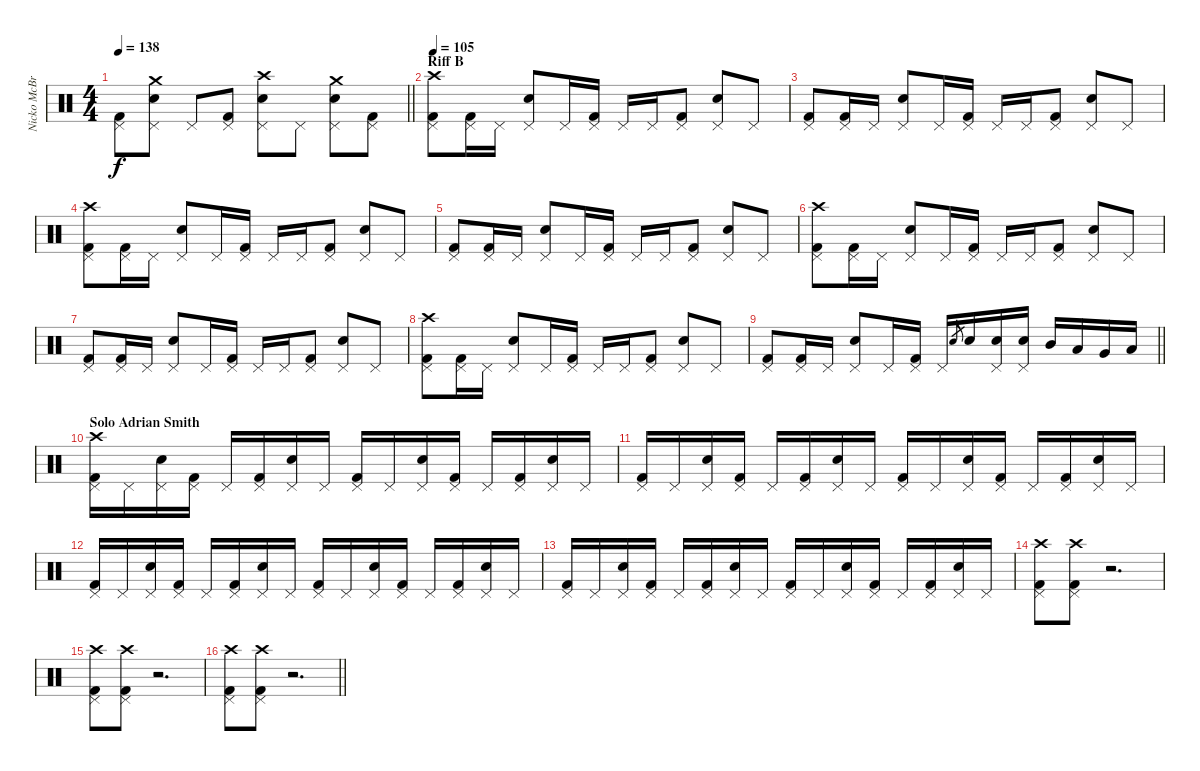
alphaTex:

\track ("Nicko McBrain" "Nicko McBr") {instrument percussion}
\staff {score}
\articulation defaults
\ts (4 4)
\tempo 138
\clef neutral
\barLineRight lightlight
\ks c
("Kick (hit) 2" "Pedal Hi-Hat (hit)").8{dy f} ("Snare (hit) 2" "Pedal Hi-Hat (hit)" "Crash medium (hit)").8 "Pedal Hi-Hat (hit)".8 ("Kick (hit) 2" "Pedal Hi-Hat (hit)").8 ("Snare (hit) 2" "Pedal Hi-Hat (hit)" "Crash high (hit)").8 "Pedal Hi-Hat (hit)".8 ("Snare (hit) 2" "Pedal Hi-Hat (hit)" "Crash medium (hit)").8 ("Kick (hit) 2" "Pedal Hi-Hat (hit)").8 |
\section ("" "Riff B")
\tempo 105
("Kick (hit) 2" "Pedal Hi-Hat (hit)" "Crash high (hit)").8 ("Kick (hit) 2" "Pedal Hi-Hat (hit)").16 "Pedal Hi-Hat (hit)".16 ("Snare (hit) 2" "Pedal Hi-Hat (hit)").8 "Pedal Hi-Hat (hit)".16 ("Kick (hit) 2" "Pedal Hi-Hat (hit)").16 "Pedal Hi-Hat (hit)".16 "Pedal Hi-Hat (hit)".16 ("Kick (hit) 2" "Pedal Hi-Hat (hit)").8 ("Snare (hit) 2" "Pedal Hi-Hat (hit)").8 "Pedal Hi-Hat (hit)".8 |
("Kick (hit) 2" "Pedal Hi-Hat (hit)").8 ("Kick (hit) 2" "Pedal Hi-Hat (hit)").16 "Pedal Hi-Hat (hit)".16 ("Snare (hit) 2" "Pedal Hi-Hat (hit)").8 "Pedal Hi-Hat (hit)".16 ("Kick (hit) 2" "Pedal Hi-Hat (hit)").16 "Pedal Hi-Hat (hit)".16 "Pedal Hi-Hat (hit)".16 ("Kick (hit) 2" "Pedal Hi-Hat (hit)").8 ("Snare (hit) 2" "Pedal Hi-Hat (hit)").8 "Pedal Hi-Hat (hit)".8 |
("Kick (hit) 2" "Pedal Hi-Hat (hit)" "Crash high (hit)").8 ("Kick (hit) 2" "Pedal Hi-Hat (hit)").16 "Pedal Hi-Hat (hit)".16 ("Snare (hit) 2" "Pedal Hi-Hat (hit)").8 "Pedal Hi-Hat (hit)".16 ("Kick (hit) 2" "Pedal Hi-Hat (hit)").16 "Pedal Hi-Hat (hit)".16 "Pedal Hi-Hat (hit)".16 ("Kick (hit) 2" "Pedal Hi-Hat (hit)").8 ("Snare (hit) 2" "Pedal Hi-Hat (hit)").8 "Pedal Hi-Hat (hit)".8 |
("Kick (hit) 2" "Pedal Hi-Hat (hit)").8 ("Kick (hit) 2" "Pedal Hi-Hat (hit)").16 "Pedal Hi-Hat (hit)".16 ("Snare (hit) 2" "Pedal Hi-Hat (hit)").8 "Pedal Hi-Hat (hit)".16 ("Kick (hit) 2" "Pedal Hi-Hat (hit)").16 "Pedal Hi-Hat (hit)".16 "Pedal Hi-Hat (hit)".16 ("Kick (hit) 2" "Pedal Hi-Hat (hit)").8 ("Snare (hit) 2" "Pedal Hi-Hat (hit)").8 "Pedal Hi-Hat (hit)".8 |
("Kick (hit) 2" "Pedal Hi-Hat (hit)" "Crash high (hit)").8 ("Kick (hit) 2" "Pedal Hi-Hat (hit)").16 "Pedal Hi-Hat (hit)".16 ("Snare (hit) 2" "Pedal Hi-Hat (hit)").8 "Pedal Hi-Hat (hit)".16 ("Kick (hit) 2" "Pedal Hi-Hat (hit)").16 "Pedal Hi-Hat (hit)".16 "Pedal Hi-Hat (hit)".16 ("Kick (hit) 2" "Pedal Hi-Hat (hit)").8 ("Snare (hit) 2" "Pedal Hi-Hat (hit)").8 "Pedal Hi-Hat (hit)".8 |
("Kick (hit) 2" "Pedal Hi-Hat (hit)").8 ("Kick (hit) 2" "Pedal Hi-Hat (hit)").16 "Pedal Hi-Hat (hit)".16 ("Snare (hit) 2" "Pedal Hi-Hat (hit)").8 "Pedal Hi-Hat (hit)".16 ("Kick (hit) 2" "Pedal Hi-Hat (hit)").16 "Pedal Hi-Hat (hit)".16 "Pedal Hi-Hat (hit)".16 ("Kick (hit) 2" "Pedal Hi-Hat (hit)").8 ("Snare (hit) 2" "Pedal Hi-Hat (hit)").8 "Pedal Hi-Hat (hit)".8 |
("Kick (hit) 2" "Pedal Hi-Hat (hit)" "Crash high (hit)").8 ("Kick (hit) 2" "Pedal Hi-Hat (hit)").16 "Pedal Hi-Hat (hit)".16 ("Snare (hit) 2" "Pedal Hi-Hat (hit)").8 "Pedal Hi-Hat (hit)".16 ("Kick (hit) 2" "Pedal Hi-Hat (hit)").16 "Pedal Hi-Hat (hit)".16 "Pedal Hi-Hat (hit)".16 ("Kick (hit) 2" "Pedal Hi-Hat (hit)").8 ("Snare (hit) 2" "Pedal Hi-Hat (hit)").8 "Pedal Hi-Hat (hit)".8 |
\barLineRight lightlight
("Kick (hit) 2" "Pedal Hi-Hat (hit)").8 ("Kick (hit) 2" "Pedal Hi-Hat (hit)").16 "Pedal Hi-Hat (hit)".16 ("Snare (hit) 2" "Pedal Hi-Hat (hit)").8 "Pedal Hi-Hat (hit)".16 ("Kick (hit) 2" "Pedal Hi-Hat (hit)").16 "Pedal Hi-Hat (hit)".16 "Snare (hit) 2".8{gr} "Snare (hit) 2".16 ("Snare (hit) 2" "Pedal Hi-Hat (hit)").16 ("Snare (hit) 2" "Pedal Hi-Hat (hit)").16 "Mid Tom (hit)".16 "Low Tom (hit)".16 "Very Low Tom (hit)".16 "Low Floor Tom (hit)".16 |
\section ("" "Solo Adrian Smith")
("Kick (hit) 2" "Pedal Hi-Hat (hit)" "Crash high (hit)").16 "Pedal Hi-Hat (hit)".16 ("Snare (hit) 2" "Pedal Hi-Hat (hit)").16 ("Kick (hit) 2" "Pedal Hi-Hat (hit)").16 "Pedal Hi-Hat (hit)".16 ("Kick (hit) 2" "Pedal Hi-Hat (hit)").16 ("Snare (hit) 2" "Pedal Hi-Hat (hit)").16 "Pedal Hi-Hat (hit)".16 ("Kick (hit) 2" "Pedal Hi-Hat (hit)").16 "Pedal Hi-Hat (hit)".16 ("Snare (hit) 2" "Pedal Hi-Hat (hit)").16 ("Kick (hit) 2" "Pedal Hi-Hat (hit)").16 "Pedal Hi-Hat (hit)".16 ("Kick (hit) 2" "Pedal Hi-Hat (hit)").16 ("Snare (hit) 2" "Pedal Hi-Hat (hit)").16 "Pedal Hi-Hat (hit)".16 |
("Kick (hit) 2" "Pedal Hi-Hat (hit)").16 "Pedal Hi-Hat (hit)".16 ("Snare (hit) 2" "Pedal Hi-Hat (hit)").16 ("Kick (hit) 2" "Pedal Hi-Hat (hit)").16 "Pedal Hi-Hat (hit)".16 ("Kick (hit) 2" "Pedal Hi-Hat (hit)").16 ("Snare (hit) 2" "Pedal Hi-Hat (hit)").16 "Pedal Hi-Hat (hit)".16 ("Kick (hit) 2" "Pedal Hi-Hat (hit)").16 "Pedal Hi-Hat (hit)".16 ("Snare (hit) 2" "Pedal Hi-Hat (hit)").16 ("Kick (hit) 2" "Pedal Hi-Hat (hit)").16 "Pedal Hi-Hat (hit)".16 ("Kick (hit) 2" "Pedal Hi-Hat (hit)").16 ("Snare (hit) 2" "Pedal Hi-Hat (hit)").16 "Pedal Hi-Hat (hit)".16 |
("Kick (hit) 2" "Pedal Hi-Hat (hit)").16 "Pedal Hi-Hat (hit)".16 ("Snare (hit) 2" "Pedal Hi-Hat (hit)").16 ("Kick (hit) 2" "Pedal Hi-Hat (hit)").16 "Pedal Hi-Hat (hit)".16 ("Kick (hit) 2" "Pedal Hi-Hat (hit)").16 ("Snare (hit) 2" "Pedal Hi-Hat (hit)").16 "Pedal Hi-Hat (hit)".16 ("Kick (hit) 2" "Pedal Hi-Hat (hit)").16 "Pedal Hi-Hat (hit)".16 ("Snare (hit) 2" "Pedal Hi-Hat (hit)").16 ("Kick (hit) 2" "Pedal Hi-Hat (hit)").16 "Pedal Hi-Hat (hit)".16 ("Kick (hit) 2" "Pedal Hi-Hat (hit)").16 ("Snare (hit) 2" "Pedal Hi-Hat (hit)").16 "Pedal Hi-Hat (hit)".16 |
("Kick (hit) 2" "Pedal Hi-Hat (hit)").16 "Pedal Hi-Hat (hit)".16 ("Snare (hit) 2" "Pedal Hi-Hat (hit)").16 ("Kick (hit) 2" "Pedal Hi-Hat (hit)").16 "Pedal Hi-Hat (hit)".16 ("Kick (hit) 2" "Pedal Hi-Hat (hit)").16 ("Snare (hit) 2" "Pedal Hi-Hat (hit)").16 "Pedal Hi-Hat (hit)".16 ("Kick (hit) 2" "Pedal Hi-Hat (hit)").16 "Pedal Hi-Hat (hit)".16 ("Snare (hit) 2" "Pedal Hi-Hat (hit)").16 ("Kick (hit) 2" "Pedal Hi-Hat (hit)").16 "Pedal Hi-Hat (hit)".16 ("Kick (hit) 2" "Pedal Hi-Hat (hit)").16 ("Snare (hit) 2" "Pedal Hi-Hat (hit)").16 "Pedal Hi-Hat (hit)".16 |
("Kick (hit) 2" "Pedal Hi-Hat (hit)" "Crash high (hit)").8 ("Kick (hit) 2" "Pedal Hi-Hat (hit)" "Crash high (hit)").8 r.2{d} |
("Kick (hit) 2" "Pedal Hi-Hat (hit)" "Crash high (hit)").8 ("Kick (hit) 2" "Pedal Hi-Hat (hit)" "Crash high (hit)").8 r.2{d} |
\barLineRight lightlight
("Kick (hit) 2" "Pedal Hi-Hat (hit)" "Crash high (hit)").8 ("Kick (hit) 2" "Pedal Hi-Hat (hit)" "Crash high (hit)").8 r.2{d}
